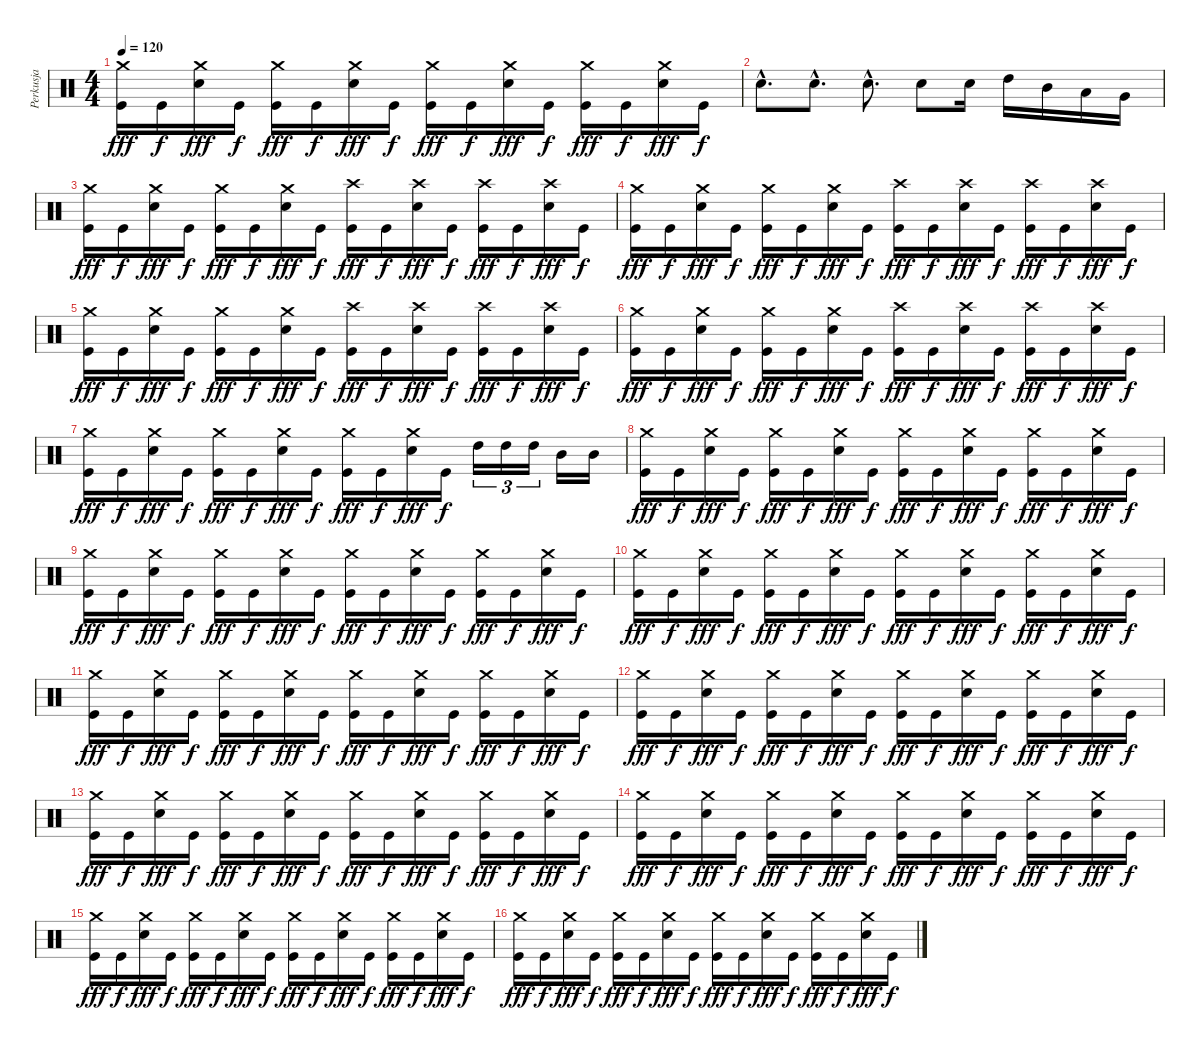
\track ("Perkusja" "Perkusja") {instrument percussion}
\staff {score}
\articulation defaults
\ts (4 4)
\tempo 120
\clef neutral
\ks c
("Crash medium (hit)" "Kick (hit)").16{dy fff} "Kick (hit)".16{dy f} ("Crash medium (hit)" "Electric Snare (hit)").16{dy fff} "Kick (hit)".16{dy f} ("Crash medium (hit)" "Kick (hit)").16{dy fff} "Kick (hit)".16{dy f} ("Crash medium (hit)" "Electric Snare (hit)").16{dy fff} "Kick (hit)".16{dy f} ("Crash medium (hit)" "Kick (hit)").16{dy fff} "Kick (hit)".16{dy f} ("Crash medium (hit)" "Electric Snare (hit)").16{dy fff} "Kick (hit)".16{dy f} ("Crash medium (hit)" "Kick (hit)").16{dy fff} "Kick (hit)".16{dy f} ("Crash medium (hit)" "Electric Snare (hit)").16{dy fff} "Kick (hit)".16{dy f} |
"Electric Snare (hit)"{hac}.8{d} "Electric Snare (hit)"{hac}.8{d} "Electric Snare (hit)"{hac}.8{d} "Electric Snare (hit)".8 "Electric Snare (hit)".16 "High Tom (hit)".16 "Mid Tom (hit)".16 "Low Tom (hit)".16 "Very Low Tom (hit)".16 |
("Crash medium (hit)" "Kick (hit)").16{dy fff} "Kick (hit)".16{dy f} ("Crash medium (hit)" "Electric Snare (hit)").16{dy fff} "Kick (hit)".16{dy f} ("Crash medium (hit)" "Kick (hit)").16{dy fff} "Kick (hit)".16{dy f} ("Crash medium (hit)" "Electric Snare (hit)").16{dy fff} "Kick (hit)".16{dy f} ("Crash high (hit)" "Kick (hit)").16{dy fff} "Kick (hit)".16{dy f} ("Crash high (hit)" "Electric Snare (hit)").16{dy fff} "Kick (hit)".16{dy f} ("Crash high (hit)" "Kick (hit)").16{dy fff} "Kick (hit)".16{dy f} ("Crash high (hit)" "Electric Snare (hit)").16{dy fff} "Kick (hit)".16{dy f} |
("Crash medium (hit)" "Kick (hit)").16{dy fff} "Kick (hit)".16{dy f} ("Crash medium (hit)" "Electric Snare (hit)").16{dy fff} "Kick (hit)".16{dy f} ("Crash medium (hit)" "Kick (hit)").16{dy fff} "Kick (hit)".16{dy f} ("Crash medium (hit)" "Electric Snare (hit)").16{dy fff} "Kick (hit)".16{dy f} ("Crash high (hit)" "Kick (hit)").16{dy fff} "Kick (hit)".16{dy f} ("Crash high (hit)" "Electric Snare (hit)").16{dy fff} "Kick (hit)".16{dy f} ("Crash high (hit)" "Kick (hit)").16{dy fff} "Kick (hit)".16{dy f} ("Crash high (hit)" "Electric Snare (hit)").16{dy fff} "Kick (hit)".16{dy f} |
("Crash medium (hit)" "Kick (hit)").16{dy fff} "Kick (hit)".16{dy f} ("Crash medium (hit)" "Electric Snare (hit)").16{dy fff} "Kick (hit)".16{dy f} ("Crash medium (hit)" "Kick (hit)").16{dy fff} "Kick (hit)".16{dy f} ("Crash medium (hit)" "Electric Snare (hit)").16{dy fff} "Kick (hit)".16{dy f} ("Crash high (hit)" "Kick (hit)").16{dy fff} "Kick (hit)".16{dy f} ("Crash high (hit)" "Electric Snare (hit)").16{dy fff} "Kick (hit)".16{dy f} ("Crash high (hit)" "Kick (hit)").16{dy fff} "Kick (hit)".16{dy f} ("Crash high (hit)" "Electric Snare (hit)").16{dy fff} "Kick (hit)".16{dy f} |
("Crash medium (hit)" "Kick (hit)").16{dy fff} "Kick (hit)".16{dy f} ("Crash medium (hit)" "Electric Snare (hit)").16{dy fff} "Kick (hit)".16{dy f} ("Crash medium (hit)" "Kick (hit)").16{dy fff} "Kick (hit)".16{dy f} ("Crash medium (hit)" "Electric Snare (hit)").16{dy fff} "Kick (hit)".16{dy f} ("Crash high (hit)" "Kick (hit)").16{dy fff} "Kick (hit)".16{dy f} ("Crash high (hit)" "Electric Snare (hit)").16{dy fff} "Kick (hit)".16{dy f} ("Crash high (hit)" "Kick (hit)").16{dy fff} "Kick (hit)".16{dy f} ("Crash high (hit)" "Electric Snare (hit)").16{dy fff} "Kick (hit)".16{dy f} |
("Crash medium (hit)" "Kick (hit)").16{dy fff} "Kick (hit)".16{dy f} ("Crash medium (hit)" "Electric Snare (hit)").16{dy fff} "Kick (hit)".16{dy f} ("Crash medium (hit)" "Kick (hit)").16{dy fff} "Kick (hit)".16{dy f} ("Crash medium (hit)" "Electric Snare (hit)").16{dy fff} "Kick (hit)".16{dy f} ("Crash medium (hit)" "Kick (hit)").16{dy fff} "Kick (hit)".16{dy f} ("Crash medium (hit)" "Electric Snare (hit)").16{dy fff} "Kick (hit)".16{dy f} "High Tom (hit)".16{tu (3 2)} "High Tom (hit)".16{tu (3 2)} "High Tom (hit)".16{tu (3 2)} "Mid Tom (hit)".16 "Mid Tom (hit)".16 |
("Crash medium (hit)" "Kick (hit)").16{dy fff} "Kick (hit)".16{dy f} ("Crash medium (hit)" "Electric Snare (hit)").16{dy fff} "Kick (hit)".16{dy f} ("Crash medium (hit)" "Kick (hit)").16{dy fff} "Kick (hit)".16{dy f} ("Crash medium (hit)" "Electric Snare (hit)").16{dy fff} "Kick (hit)".16{dy f} ("Crash medium (hit)" "Kick (hit)").16{dy fff} "Kick (hit)".16{dy f} ("Crash medium (hit)" "Electric Snare (hit)").16{dy fff} "Kick (hit)".16{dy f} ("Crash medium (hit)" "Kick (hit)").16{dy fff} "Kick (hit)".16{dy f} ("Crash medium (hit)" "Electric Snare (hit)").16{dy fff} "Kick (hit)".16{dy f} |
("Crash medium (hit)" "Kick (hit)").16{dy fff} "Kick (hit)".16{dy f} ("Crash medium (hit)" "Electric Snare (hit)").16{dy fff} "Kick (hit)".16{dy f} ("Crash medium (hit)" "Kick (hit)").16{dy fff} "Kick (hit)".16{dy f} ("Crash medium (hit)" "Electric Snare (hit)").16{dy fff} "Kick (hit)".16{dy f} ("Crash medium (hit)" "Kick (hit)").16{dy fff} "Kick (hit)".16{dy f} ("Crash medium (hit)" "Electric Snare (hit)").16{dy fff} "Kick (hit)".16{dy f} ("Crash medium (hit)" "Kick (hit)").16{dy fff} "Kick (hit)".16{dy f} ("Crash medium (hit)" "Electric Snare (hit)").16{dy fff} "Kick (hit)".16{dy f} |
("Crash medium (hit)" "Kick (hit)").16{dy fff} "Kick (hit)".16{dy f} ("Crash medium (hit)" "Electric Snare (hit)").16{dy fff} "Kick (hit)".16{dy f} ("Crash medium (hit)" "Kick (hit)").16{dy fff} "Kick (hit)".16{dy f} ("Crash medium (hit)" "Electric Snare (hit)").16{dy fff} "Kick (hit)".16{dy f} ("Crash medium (hit)" "Kick (hit)").16{dy fff} "Kick (hit)".16{dy f} ("Crash medium (hit)" "Electric Snare (hit)").16{dy fff} "Kick (hit)".16{dy f} ("Crash medium (hit)" "Kick (hit)").16{dy fff} "Kick (hit)".16{dy f} ("Crash medium (hit)" "Electric Snare (hit)").16{dy fff} "Kick (hit)".16{dy f} |
("Crash medium (hit)" "Kick (hit)").16{dy fff} "Kick (hit)".16{dy f} ("Crash medium (hit)" "Electric Snare (hit)").16{dy fff} "Kick (hit)".16{dy f} ("Crash medium (hit)" "Kick (hit)").16{dy fff} "Kick (hit)".16{dy f} ("Crash medium (hit)" "Electric Snare (hit)").16{dy fff} "Kick (hit)".16{dy f} ("Crash medium (hit)" "Kick (hit)").16{dy fff} "Kick (hit)".16{dy f} ("Crash medium (hit)" "Electric Snare (hit)").16{dy fff} "Kick (hit)".16{dy f} ("Crash medium (hit)" "Kick (hit)").16{dy fff} "Kick (hit)".16{dy f} ("Crash medium (hit)" "Electric Snare (hit)").16{dy fff} "Kick (hit)".16{dy f} |
("Crash medium (hit)" "Kick (hit)").16{dy fff} "Kick (hit)".16{dy f} ("Crash medium (hit)" "Electric Snare (hit)").16{dy fff} "Kick (hit)".16{dy f} ("Crash medium (hit)" "Kick (hit)").16{dy fff} "Kick (hit)".16{dy f} ("Crash medium (hit)" "Electric Snare (hit)").16{dy fff} "Kick (hit)".16{dy f} ("Crash medium (hit)" "Kick (hit)").16{dy fff} "Kick (hit)".16{dy f} ("Crash medium (hit)" "Electric Snare (hit)").16{dy fff} "Kick (hit)".16{dy f} ("Crash medium (hit)" "Kick (hit)").16{dy fff} "Kick (hit)".16{dy f} ("Crash medium (hit)" "Electric Snare (hit)").16{dy fff} "Kick (hit)".16{dy f} |
("Crash medium (hit)" "Kick (hit)").16{dy fff} "Kick (hit)".16{dy f} ("Crash medium (hit)" "Electric Snare (hit)").16{dy fff} "Kick (hit)".16{dy f} ("Crash medium (hit)" "Kick (hit)").16{dy fff} "Kick (hit)".16{dy f} ("Crash medium (hit)" "Electric Snare (hit)").16{dy fff} "Kick (hit)".16{dy f} ("Crash medium (hit)" "Kick (hit)").16{dy fff} "Kick (hit)".16{dy f} ("Crash medium (hit)" "Electric Snare (hit)").16{dy fff} "Kick (hit)".16{dy f} ("Crash medium (hit)" "Kick (hit)").16{dy fff} "Kick (hit)".16{dy f} ("Crash medium (hit)" "Electric Snare (hit)").16{dy fff} "Kick (hit)".16{dy f} |
("Crash medium (hit)" "Kick (hit)").16{dy fff} "Kick (hit)".16{dy f} ("Crash medium (hit)" "Electric Snare (hit)").16{dy fff} "Kick (hit)".16{dy f} ("Crash medium (hit)" "Kick (hit)").16{dy fff} "Kick (hit)".16{dy f} ("Crash medium (hit)" "Electric Snare (hit)").16{dy fff} "Kick (hit)".16{dy f} ("Crash medium (hit)" "Kick (hit)").16{dy fff} "Kick (hit)".16{dy f} ("Crash medium (hit)" "Electric Snare (hit)").16{dy fff} "Kick (hit)".16{dy f} ("Crash medium (hit)" "Kick (hit)").16{dy fff} "Kick (hit)".16{dy f} ("Crash medium (hit)" "Electric Snare (hit)").16{dy fff} "Kick (hit)".16{dy f} |
("Crash medium (hit)" "Kick (hit)").16{dy fff} "Kick (hit)".16{dy f} ("Crash medium (hit)" "Electric Snare (hit)").16{dy fff} "Kick (hit)".16{dy f} ("Crash medium (hit)" "Kick (hit)").16{dy fff} "Kick (hit)".16{dy f} ("Crash medium (hit)" "Electric Snare (hit)").16{dy fff} "Kick (hit)".16{dy f} ("Crash medium (hit)" "Kick (hit)").16{dy fff} "Kick (hit)".16{dy f} ("Crash medium (hit)" "Electric Snare (hit)").16{dy fff} "Kick (hit)".16{dy f} ("Crash medium (hit)" "Kick (hit)").16{dy fff} "Kick (hit)".16{dy f} ("Crash medium (hit)" "Electric Snare (hit)").16{dy fff} "Kick (hit)".16{dy f} |
("Crash medium (hit)" "Kick (hit)").16{dy fff} "Kick (hit)".16{dy f} ("Crash medium (hit)" "Electric Snare (hit)").16{dy fff} "Kick (hit)".16{dy f} ("Crash medium (hit)" "Kick (hit)").16{dy fff} "Kick (hit)".16{dy f} ("Crash medium (hit)" "Electric Snare (hit)").16{dy fff} "Kick (hit)".16{dy f} ("Crash medium (hit)" "Kick (hit)").16{dy fff} "Kick (hit)".16{dy f} ("Crash medium (hit)" "Electric Snare (hit)").16{dy fff} "Kick (hit)".16{dy f} ("Crash medium (hit)" "Kick (hit)").16{dy fff} "Kick (hit)".16{dy f} ("Crash medium (hit)" "Electric Snare (hit)").16{dy fff} "Kick (hit)".16{dy f}
